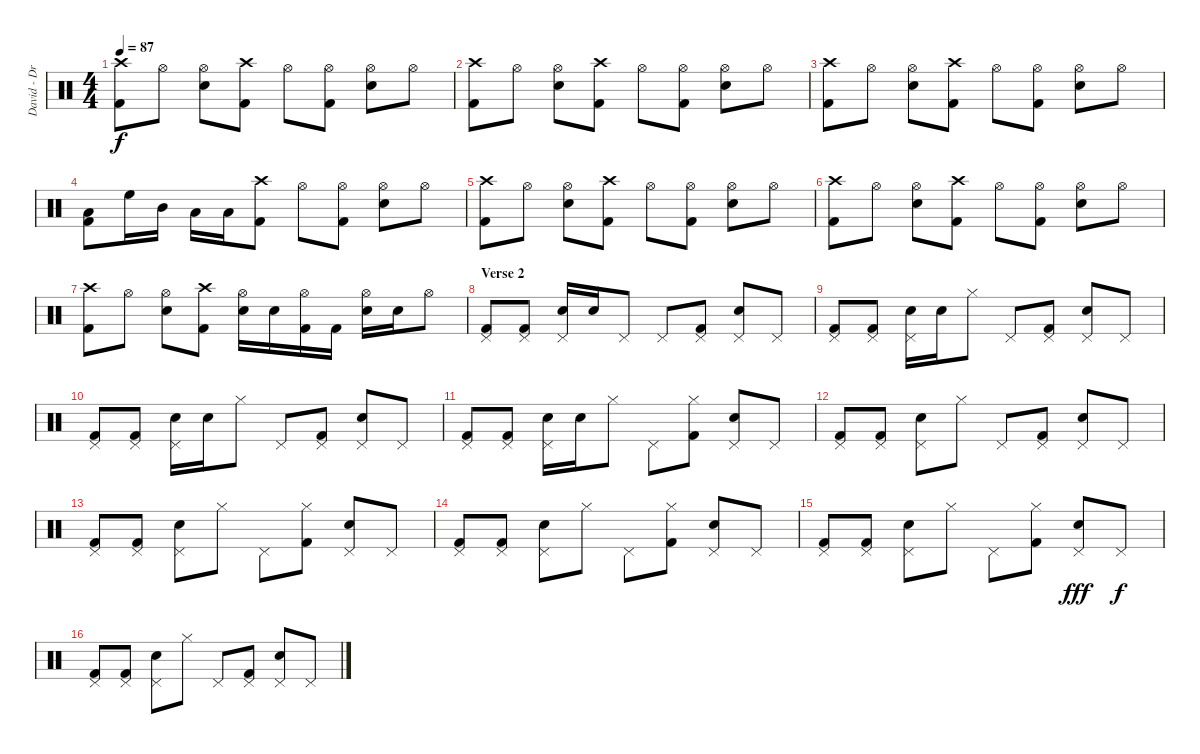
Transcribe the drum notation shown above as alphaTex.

\track ("David - Drums" "David - Dr") {instrument percussion}
\staff {score}
\articulation defaults
\ts (4 4)
\tempo 87
\clef neutral
\ks c
("Crash high (hit)" "Kick (hit) 2").8{dy f} "Hi-Hat (open)".8 ("Hi-Hat (open)" "Electric Snare (hit)").8 ("Crash high (hit)" "Kick (hit) 2").8 "Hi-Hat (open)".8 ("Hi-Hat (open)" "Kick (hit) 2").8 ("Hi-Hat (open)" "Electric Snare (hit)").8 "Hi-Hat (open)".8 |
("Crash high (hit)" "Kick (hit) 2").8 "Hi-Hat (open)".8 ("Hi-Hat (open)" "Electric Snare (hit)").8 ("Crash high (hit)" "Kick (hit) 2").8 "Hi-Hat (open)".8 ("Hi-Hat (open)" "Kick (hit) 2").8 ("Hi-Hat (open)" "Electric Snare (hit)").8 "Hi-Hat (open)".8 |
("Crash high (hit)" "Kick (hit) 2").8 "Hi-Hat (open)".8 ("Hi-Hat (open)" "Electric Snare (hit)").8 ("Crash high (hit)" "Kick (hit) 2").8 "Hi-Hat (open)".8 ("Hi-Hat (open)" "Kick (hit) 2").8 ("Hi-Hat (open)" "Electric Snare (hit)").8 "Hi-Hat (open)".8 |
("Low Floor Tom (hit)" "Kick (hit) 2").8 "High Floor Tom (hit)".16 "Mid Tom (hit)".16 "Low Tom (hit)".16 "Low Floor Tom (hit)".16 ("Crash high (hit)" "Kick (hit) 2").8 "Hi-Hat (open)".8 ("Hi-Hat (open)" "Kick (hit) 2").8 ("Hi-Hat (open)" "Electric Snare (hit)").8 "Hi-Hat (open)".8 |
("Crash high (hit)" "Kick (hit) 2").8 "Hi-Hat (open)".8 ("Hi-Hat (open)" "Electric Snare (hit)").8 ("Crash high (hit)" "Kick (hit) 2").8 "Hi-Hat (open)".8 ("Hi-Hat (open)" "Kick (hit) 2").8 ("Hi-Hat (open)" "Electric Snare (hit)").8 "Hi-Hat (open)".8 |
("Crash high (hit)" "Kick (hit) 2").8 "Hi-Hat (open)".8 ("Hi-Hat (open)" "Electric Snare (hit)").8 ("Crash high (hit)" "Kick (hit) 2").8 "Hi-Hat (open)".8 ("Hi-Hat (open)" "Kick (hit) 2").8 ("Hi-Hat (open)" "Electric Snare (hit)").8 "Hi-Hat (open)".8 |
("Crash high (hit)" "Kick (hit) 2").8 "Hi-Hat (open)".8 ("Hi-Hat (open)" "Electric Snare (hit)").8 ("Crash high (hit)" "Kick (hit) 2").8 ("Hi-Hat (open)" "Electric Snare (hit)").16 "Electric Snare (hit)".16 ("Hi-Hat (open)" "Kick (hit) 2").16 "Kick (hit) 2".16 ("Hi-Hat (open)" "Electric Snare (hit)").16 "Electric Snare (hit)".16 "Hi-Hat (open)".8 |
\section ("" "Verse 2")
("Pedal Hi-Hat (hit)" "Kick (hit) 2").8 ("Pedal Hi-Hat (hit)" "Kick (hit) 2").8 ("Pedal Hi-Hat (hit)" "Electric Snare (hit)").16 "Electric Snare (hit)".16 "Pedal Hi-Hat (hit)".8 "Pedal Hi-Hat (hit)".8 ("Pedal Hi-Hat (hit)" "Kick (hit) 2").8 ("Pedal Hi-Hat (hit)" "Electric Snare (hit)").8 "Pedal Hi-Hat (hit)".8 |
("Pedal Hi-Hat (hit)" "Kick (hit) 2").8 ("Pedal Hi-Hat (hit)" "Kick (hit) 2").8 ("Pedal Hi-Hat (hit)" "Electric Snare (hit)").16 "Electric Snare (hit)".16 "Hi-Hat (closed)".8 "Pedal Hi-Hat (hit)".8 ("Pedal Hi-Hat (hit)" "Kick (hit) 2").8 ("Pedal Hi-Hat (hit)" "Electric Snare (hit)").8 "Pedal Hi-Hat (hit)".8 |
("Pedal Hi-Hat (hit)" "Kick (hit) 2").8 ("Pedal Hi-Hat (hit)" "Kick (hit) 2").8 ("Pedal Hi-Hat (hit)" "Electric Snare (hit)").16 "Electric Snare (hit)".16 "Hi-Hat (closed)".8 "Pedal Hi-Hat (hit)".8 ("Pedal Hi-Hat (hit)" "Kick (hit) 2").8 ("Pedal Hi-Hat (hit)" "Electric Snare (hit)").8 "Pedal Hi-Hat (hit)".8 |
("Pedal Hi-Hat (hit)" "Kick (hit) 2").8 ("Pedal Hi-Hat (hit)" "Kick (hit) 2").8 ("Pedal Hi-Hat (hit)" "Electric Snare (hit)").16 "Electric Snare (hit)".16 "Hi-Hat (closed)".8 "Pedal Hi-Hat (hit)".8 ("Hi-Hat (closed)" "Kick (hit) 2").8 ("Pedal Hi-Hat (hit)" "Electric Snare (hit)").8 "Pedal Hi-Hat (hit)".8 |
("Pedal Hi-Hat (hit)" "Kick (hit) 2").8 ("Pedal Hi-Hat (hit)" "Kick (hit) 2").8 ("Pedal Hi-Hat (hit)" "Electric Snare (hit)").8 "Hi-Hat (closed)".8 "Pedal Hi-Hat (hit)".8 ("Pedal Hi-Hat (hit)" "Kick (hit) 2").8 ("Pedal Hi-Hat (hit)" "Electric Snare (hit)").8 "Pedal Hi-Hat (hit)".8 |
("Pedal Hi-Hat (hit)" "Kick (hit) 2").8 ("Pedal Hi-Hat (hit)" "Kick (hit) 2").8 ("Pedal Hi-Hat (hit)" "Electric Snare (hit)").8 "Hi-Hat (closed)".8 "Pedal Hi-Hat (hit)".8 ("Hi-Hat (closed)" "Kick (hit) 2").8 ("Pedal Hi-Hat (hit)" "Electric Snare (hit)").8 "Pedal Hi-Hat (hit)".8 |
("Pedal Hi-Hat (hit)" "Kick (hit) 2").8 ("Pedal Hi-Hat (hit)" "Kick (hit) 2").8 ("Pedal Hi-Hat (hit)" "Electric Snare (hit)").8 "Hi-Hat (closed)".8 "Pedal Hi-Hat (hit)".8 ("Hi-Hat (closed)" "Kick (hit) 2").8 ("Pedal Hi-Hat (hit)" "Electric Snare (hit)").8 "Pedal Hi-Hat (hit)".8 |
("Pedal Hi-Hat (hit)" "Kick (hit) 2").8 ("Pedal Hi-Hat (hit)" "Kick (hit) 2").8 ("Pedal Hi-Hat (hit)" "Electric Snare (hit)").8 "Hi-Hat (closed)".8 "Pedal Hi-Hat (hit)".8 ("Hi-Hat (closed)" "Kick (hit) 2").8 ("Pedal Hi-Hat (hit)" "Electric Snare (hit)").8{dy fff} "Pedal Hi-Hat (hit)".8{dy f} |
("Pedal Hi-Hat (hit)" "Kick (hit) 2").8 ("Pedal Hi-Hat (hit)" "Kick (hit) 2").8 ("Pedal Hi-Hat (hit)" "Electric Snare (hit)").8 "Hi-Hat (closed)".8 "Pedal Hi-Hat (hit)".8 ("Pedal Hi-Hat (hit)" "Kick (hit) 2").8 ("Pedal Hi-Hat (hit)" "Electric Snare (hit)").8 "Pedal Hi-Hat (hit)".8
